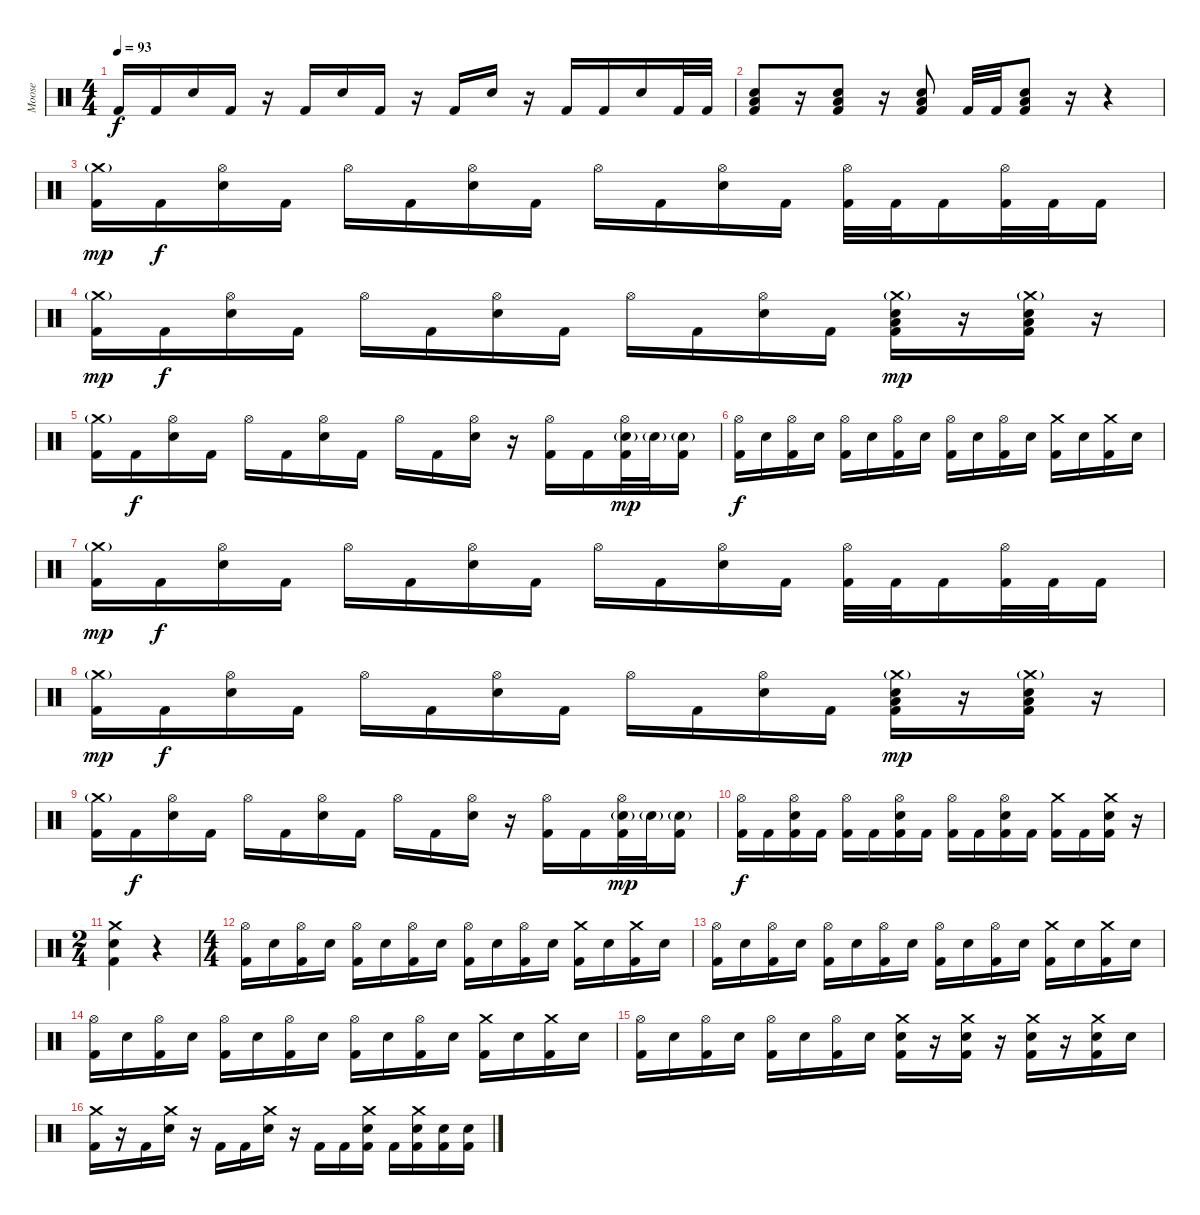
\track ("Moose" "Moose") {instrument percussion}
\staff {score}
\articulation defaults
\ts (4 4)
\tempo 93
\clef neutral
\ks c "Kick (hit) 2".16{dy f} "Kick (hit) 2".16 "Electric Snare (hit)".16 "Kick (hit) 2".16
r.16 "Kick (hit) 2".16 "Electric Snare (hit)".16 "Kick (hit) 2".16 r.16 "Kick (hit) 2".16 "Electric Snare (hit)".16 r.16 "Kick (hit) 2".16 "Kick (hit) 2".16 "Electric Snare (hit)".16 "Kick (hit) 2".32 "Kick (hit) 2".32 |
("Low Floor Tom (hit)" "Electric Snare (hit)" "Kick (hit) 2").8 r.16 ("Low Floor Tom (hit)" "Electric Snare (hit)" "Kick (hit) 2").8 r.16 ("Low Floor Tom (hit)" "Electric Snare (hit)" "Kick (hit) 2").8 "Kick (hit) 2".32 "Kick (hit) 2".32 ("Low Floor Tom (hit)" "Electric Snare (hit)" "Kick (hit) 2").8 r.16 r.4 |
("Crash medium (hit)"{g} "Kick (hit) 2").16{dy mp} "Kick (hit) 2".16{dy f} ("Hi-Hat (open)" "Electric Snare (hit)").16 "Kick (hit) 2".16 "Hi-Hat (open)".16 "Kick (hit) 2".16 ("Hi-Hat (open)" "Electric Snare (hit)").16 "Kick (hit) 2".16 "Hi-Hat (open)".16 "Kick (hit) 2".16 ("Hi-Hat (open)" "Electric Snare (hit)").16 "Kick (hit) 2".16 ("Hi-Hat (open)" "Kick (hit) 2").32 "Kick (hit) 2".32 "Kick (hit) 2".16 ("Hi-Hat (open)" "Kick (hit) 2").32 "Kick (hit) 2".32 "Kick (hit) 2".16 |
("Crash medium (hit)"{g} "Kick (hit) 2").16{dy mp} "Kick (hit) 2".16{dy f} ("Hi-Hat (open)" "Electric Snare (hit)").16 "Kick (hit) 2".16 "Hi-Hat (open)".16 "Kick (hit) 2".16 ("Hi-Hat (open)" "Electric Snare (hit)").16 "Kick (hit) 2".16 "Hi-Hat (open)".16 "Kick (hit) 2".16 ("Hi-Hat (open)" "Electric Snare (hit)").16 "Kick (hit) 2".16 ("Crash medium (hit)"{g} "Low Floor Tom (hit)" "Electric Snare (hit)" "Kick (hit) 2").16{dy mp} r.16 ("Crash medium (hit)"{g} "Low Floor Tom (hit)" "Electric Snare (hit)" "Kick (hit) 2").16 r.16 |
("Crash medium (hit)"{g} "Kick (hit) 2").16 "Kick (hit) 2".16{dy f} ("Hi-Hat (open)" "Electric Snare (hit)").16 "Kick (hit) 2".16 "Hi-Hat (open)".16 "Kick (hit) 2".16 ("Hi-Hat (open)" "Electric Snare (hit)").16 "Kick (hit) 2".16 "Hi-Hat (open)".16 "Kick (hit) 2".16 ("Hi-Hat (open)" "Electric Snare (hit)").16 r.16 ("Hi-Hat (open)" "Kick (hit) 2").16 "Kick (hit) 2".16 ("Hi-Hat (open)" "Electric Snare (hit)"{g} "Kick (hit) 2").32{dy mp} "Electric Snare (hit)"{g}.32 ("Electric Snare (hit)"{g} "Kick (hit) 2").16 |
("Hi-Hat (open)" "Kick (hit) 2").16{dy f} "Electric Snare (hit)".16 ("Hi-Hat (open)" "Kick (hit) 2").16 "Electric Snare (hit)".16 ("Hi-Hat (open)" "Kick (hit) 2").16 "Electric Snare (hit)".16 ("Hi-Hat (open)" "Kick (hit) 2").16 "Electric Snare (hit)".16 ("Hi-Hat (open)" "Kick (hit) 2").16 "Electric Snare (hit)".16 ("Hi-Hat (open)" "Kick (hit) 2").16 "Electric Snare (hit)".16 ("Crash medium (hit)" "Kick (hit) 2").16 "Electric Snare (hit)".16 ("Crash medium (hit)" "Kick (hit) 2").16 "Electric Snare (hit)".16 |
("Crash medium (hit)"{g} "Kick (hit) 2").16{dy mp} "Kick (hit) 2".16{dy f} ("Hi-Hat (open)" "Electric Snare (hit)").16 "Kick (hit) 2".16 "Hi-Hat (open)".16 "Kick (hit) 2".16 ("Hi-Hat (open)" "Electric Snare (hit)").16 "Kick (hit) 2".16 "Hi-Hat (open)".16 "Kick (hit) 2".16 ("Hi-Hat (open)" "Electric Snare (hit)").16 "Kick (hit) 2".16 ("Hi-Hat (open)" "Kick (hit) 2").32 "Kick (hit) 2".32 "Kick (hit) 2".16 ("Hi-Hat (open)" "Kick (hit) 2").32 "Kick (hit) 2".32 "Kick (hit) 2".16 |
("Crash medium (hit)"{g} "Kick (hit) 2").16{dy mp} "Kick (hit) 2".16{dy f} ("Hi-Hat (open)" "Electric Snare (hit)").16 "Kick (hit) 2".16 "Hi-Hat (open)".16 "Kick (hit) 2".16 ("Hi-Hat (open)" "Electric Snare (hit)").16 "Kick (hit) 2".16 "Hi-Hat (open)".16 "Kick (hit) 2".16 ("Hi-Hat (open)" "Electric Snare (hit)").16 "Kick (hit) 2".16 ("Crash medium (hit)"{g} "Low Floor Tom (hit)" "Electric Snare (hit)" "Kick (hit) 2").16{dy mp} r.16 ("Crash medium (hit)"{g} "Low Floor Tom (hit)" "Electric Snare (hit)" "Kick (hit) 2").16 r.16 |
("Crash medium (hit)"{g} "Kick (hit) 2").16 "Kick (hit) 2".16{dy f} ("Hi-Hat (open)" "Electric Snare (hit)").16 "Kick (hit) 2".16 "Hi-Hat (open)".16 "Kick (hit) 2".16 ("Hi-Hat (open)" "Electric Snare (hit)").16 "Kick (hit) 2".16 "Hi-Hat (open)".16 "Kick (hit) 2".16 ("Hi-Hat (open)" "Electric Snare (hit)").16 r.16 ("Hi-Hat (open)" "Kick (hit) 2").16 "Kick (hit) 2".16 ("Hi-Hat (open)" "Electric Snare (hit)"{g} "Kick (hit) 2").32{dy mp} "Electric Snare (hit)"{g}.32 ("Electric Snare (hit)"{g} "Kick (hit) 2").16 |
("Hi-Hat (open)" "Kick (hit) 2").16{dy f} "Kick (hit) 2".16 ("Hi-Hat (open)" "Electric Snare (hit)" "Kick (hit) 2").16 "Kick (hit) 2".16 ("Hi-Hat (open)" "Kick (hit) 2").16 "Kick (hit) 2".16 ("Hi-Hat (open)" "Electric Snare (hit)" "Kick (hit) 2").16 "Kick (hit) 2".16 ("Hi-Hat (open)" "Kick (hit) 2").16 "Kick (hit) 2".16 ("Hi-Hat (open)" "Electric Snare (hit)" "Kick (hit) 2").16 "Kick (hit) 2".16 ("Crash medium (hit)" "Kick (hit) 2").16 "Kick (hit) 2".16 ("Crash medium (hit)" "Electric Snare (hit)" "Kick (hit) 2").16 r.16 |
\ts (2 4)
("Crash medium (hit)" "Electric Snare (hit)" "Kick (hit) 2").4 r.4 |
\ts (4 4)
("Hi-Hat (open)" "Kick (hit) 2").16 "Electric Snare (hit)".16 ("Hi-Hat (open)" "Kick (hit) 2").16 "Electric Snare (hit)".16 ("Hi-Hat (open)" "Kick (hit) 2").16 "Electric Snare (hit)".16 ("Hi-Hat (open)" "Kick (hit) 2").16 "Electric Snare (hit)".16 ("Hi-Hat (open)" "Kick (hit) 2").16 "Electric Snare (hit)".16 ("Hi-Hat (open)" "Kick (hit) 2").16 "Electric Snare (hit)".16 ("Crash medium (hit)" "Kick (hit) 2").16 "Electric Snare (hit)".16 ("Crash medium (hit)" "Kick (hit) 2").16 "Electric Snare (hit)".16 |
("Hi-Hat (open)" "Kick (hit) 2").16 "Electric Snare (hit)".16 ("Hi-Hat (open)" "Kick (hit) 2").16 "Electric Snare (hit)".16 ("Hi-Hat (open)" "Kick (hit) 2").16 "Electric Snare (hit)".16 ("Hi-Hat (open)" "Kick (hit) 2").16 "Electric Snare (hit)".16 ("Hi-Hat (open)" "Kick (hit) 2").16 "Electric Snare (hit)".16 ("Hi-Hat (open)" "Kick (hit) 2").16 "Electric Snare (hit)".16 ("Crash medium (hit)" "Kick (hit) 2").16 "Electric Snare (hit)".16 ("Crash medium (hit)" "Kick (hit) 2").16 "Electric Snare (hit)".16 |
("Hi-Hat (open)" "Kick (hit) 2").16 "Electric Snare (hit)".16 ("Hi-Hat (open)" "Kick (hit) 2").16 "Electric Snare (hit)".16 ("Hi-Hat (open)" "Kick (hit) 2").16 "Electric Snare (hit)".16 ("Hi-Hat (open)" "Kick (hit) 2").16 "Electric Snare (hit)".16 ("Hi-Hat (open)" "Kick (hit) 2").16 "Electric Snare (hit)".16 ("Hi-Hat (open)" "Kick (hit) 2").16 "Electric Snare (hit)".16 ("Crash medium (hit)" "Kick (hit) 2").16 "Electric Snare (hit)".16 ("Crash medium (hit)" "Kick (hit) 2").16 "Electric Snare (hit)".16 |
("Hi-Hat (open)" "Kick (hit) 2").16 "Electric Snare (hit)".16 ("Hi-Hat (open)" "Kick (hit) 2").16 "Electric Snare (hit)".16 ("Hi-Hat (open)" "Kick (hit) 2").16 "Electric Snare (hit)".16 ("Hi-Hat (open)" "Kick (hit) 2").16 "Electric Snare (hit)".16 ("Crash medium (hit)" "Electric Snare (hit)" "Kick (hit) 2").16 r.16 ("Crash medium (hit)" "Electric Snare (hit)" "Kick (hit) 2").16 r.16 ("Crash medium (hit)" "Electric Snare (hit)" "Kick (hit) 2").16 r.16 ("Crash medium (hit)" "Electric Snare (hit)" "Kick (hit) 2").16 "Electric Snare (hit)".16 |
("Crash medium (hit)" "Kick (hit) 2").16 r.16 "Kick (hit) 2".16 ("Crash medium (hit)" "Electric Snare (hit)").16 r.16 "Kick (hit) 2".16 "Kick (hit) 2".16 ("Crash medium (hit)" "Electric Snare (hit)").16 r.16 "Kick (hit) 2".16 "Kick (hit) 2".16 ("Crash medium (hit)" "Electric Snare (hit)" "Kick (hit) 2").16 "Kick (hit) 2".16 ("Crash medium (hit)" "Electric Snare (hit)" "Kick (hit) 2").16 ("Electric Snare (hit)" "Kick (hit) 2").16 ("Electric Snare (hit)" "Kick (hit) 2").16
